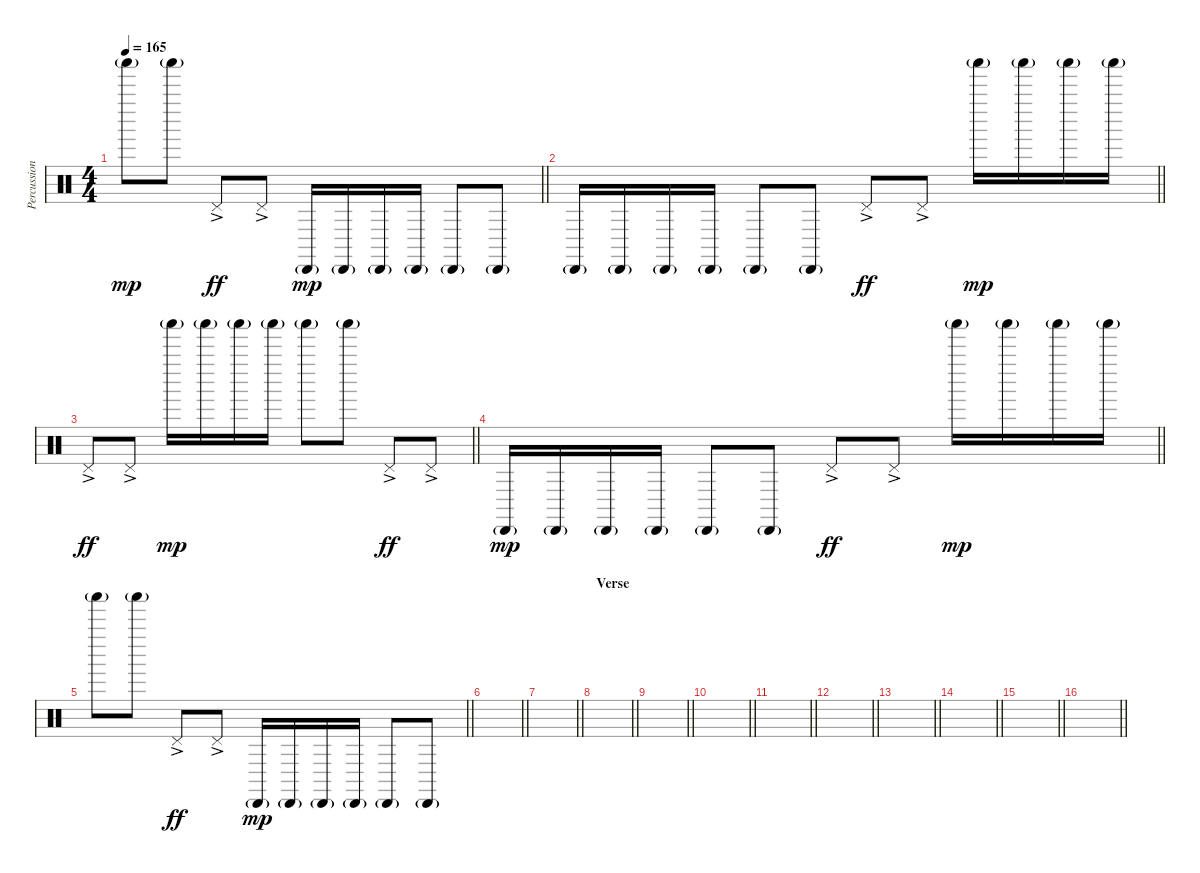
\track ("Percussion" "Percussion") {instrument percussion}
\staff {score}
\articulation defaults
\ts (4 4)
\tempo 165
\clef neutral
\barLineRight lightlight
\ks c "Shaker (hit)"{g}.8{dy mp} "Shaker (hit)"{g}.8 "Pedal Hi-Hat (hit)"{ac}.8{dy ff} "Pedal Hi-Hat (hit)"{ac}.8 "Cabasa (hit)"{g}.16{dy mp} "Cabasa (hit)"{g}.16 "Cabasa (hit)"{g}.16 "Cabasa (hit)"{g}.16 "Cabasa (hit)"{g}.8 "Cabasa (hit)"{g}.8
|
\barLineRight lightlight "Cabasa (hit)"{g}.16 "Cabasa (hit)"{g}.16 "Cabasa (hit)"{g}.16 "Cabasa (hit)"{g}.16 "Cabasa (hit)"{g}.8 "Cabasa (hit)"{g}.8 "Pedal Hi-Hat (hit)"{ac}.8{dy ff} "Pedal Hi-Hat (hit)"{ac}.8 "Shaker (hit)"{g}.16{dy mp} "Shaker (hit)"{g}.16 "Shaker (hit)"{g}.16 "Shaker (hit)"{g}.16
|
\barLineRight lightlight "Pedal Hi-Hat (hit)"{ac}.8{dy ff} "Pedal Hi-Hat (hit)"{ac}.8 "Shaker (hit)"{g}.16{dy mp} "Shaker (hit)"{g}.16 "Shaker (hit)"{g}.16 "Shaker (hit)"{g}.16 "Shaker (hit)"{g}.8 "Shaker (hit)"{g}.8 "Pedal Hi-Hat (hit)"{ac}.8{dy ff} "Pedal Hi-Hat (hit)"{ac}.8
|
\barLineRight lightlight "Cabasa (hit)"{g}.16{dy mp} "Cabasa (hit)"{g}.16 "Cabasa (hit)"{g}.16 "Cabasa (hit)"{g}.16 "Cabasa (hit)"{g}.8 "Cabasa (hit)"{g}.8 "Pedal Hi-Hat (hit)"{ac}.8{dy ff} "Pedal Hi-Hat (hit)"{ac}.8 "Shaker (hit)"{g}.16{dy mp} "Shaker (hit)"{g}.16 "Shaker (hit)"{g}.16 "Shaker (hit)"{g}.16
|
\barLineRight lightlight "Shaker (hit)"{g}.8 "Shaker (hit)"{g}.8 "Pedal Hi-Hat (hit)"{ac}.8{dy ff} "Pedal Hi-Hat (hit)"{ac}.8 "Cabasa (hit)"{g}.16{dy mp} "Cabasa (hit)"{g}.16 "Cabasa (hit)"{g}.16 "Cabasa (hit)"{g}.16 "Cabasa (hit)"{g}.8 "Cabasa (hit)"{g}.8
|
\barLineRight lightlight
|
\barLineRight lightlight
|
\section ("" "Verse")
\barLineRight lightlight
|
\barLineRight lightlight
|
\barLineRight lightlight
|
\barLineRight lightlight
|
\barLineRight lightlight
|
\barLineRight lightlight
|
\barLineRight lightlight
|
\barLineRight lightlight
|
\barLineRight lightlight
